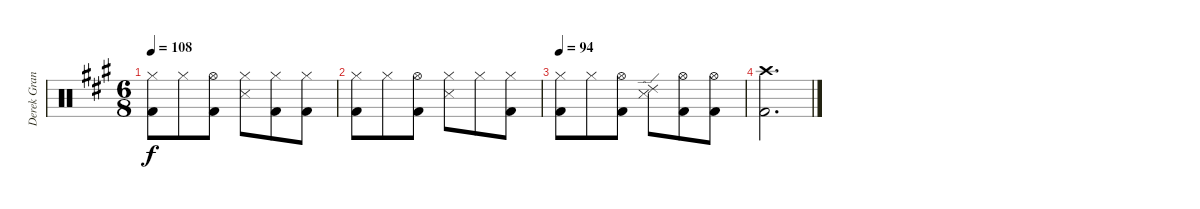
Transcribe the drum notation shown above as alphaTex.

\track ("Derek Grant - Drums" "Derek Gran") {instrument percussion}
\staff {score}
\articulation defaults
\ts (6 8)
\tempo 108
\clef neutral
\ks a
("Kick (hit) 2" "Hi-Hat (closed)").8{dy f} "Hi-Hat (closed)".8 ("Hi-Hat (open)" "Kick (hit) 2").8 ("Hi-Hat (closed)" "Snare (side stick) 3").8 ("Hi-Hat (closed)" "Kick (hit) 2").8 ("Hi-Hat (closed)" "Kick (hit) 2").8 |
("Kick (hit) 2" "Hi-Hat (closed)").8 "Hi-Hat (closed)".8 ("Hi-Hat (open)" "Kick (hit) 2").8 ("Hi-Hat (closed)" "Snare (side stick) 3").8 "Hi-Hat (closed)".8 ("Hi-Hat (closed)" "Kick (hit) 2").8 |
\tempo 94
("Kick (hit) 2" "Hi-Hat (closed)").8 "Hi-Hat (closed)".8 ("Hi-Hat (open)" "Kick (hit) 2").8 ("Ride (edge) 2" "Snare (side stick) 3").8 ("Hi-Hat (open)" "Kick (hit) 2").8 ("Hi-Hat (open)" "Kick (hit) 2").8 |
("Crash high (hit)" "Kick (hit) 2").2{d}
